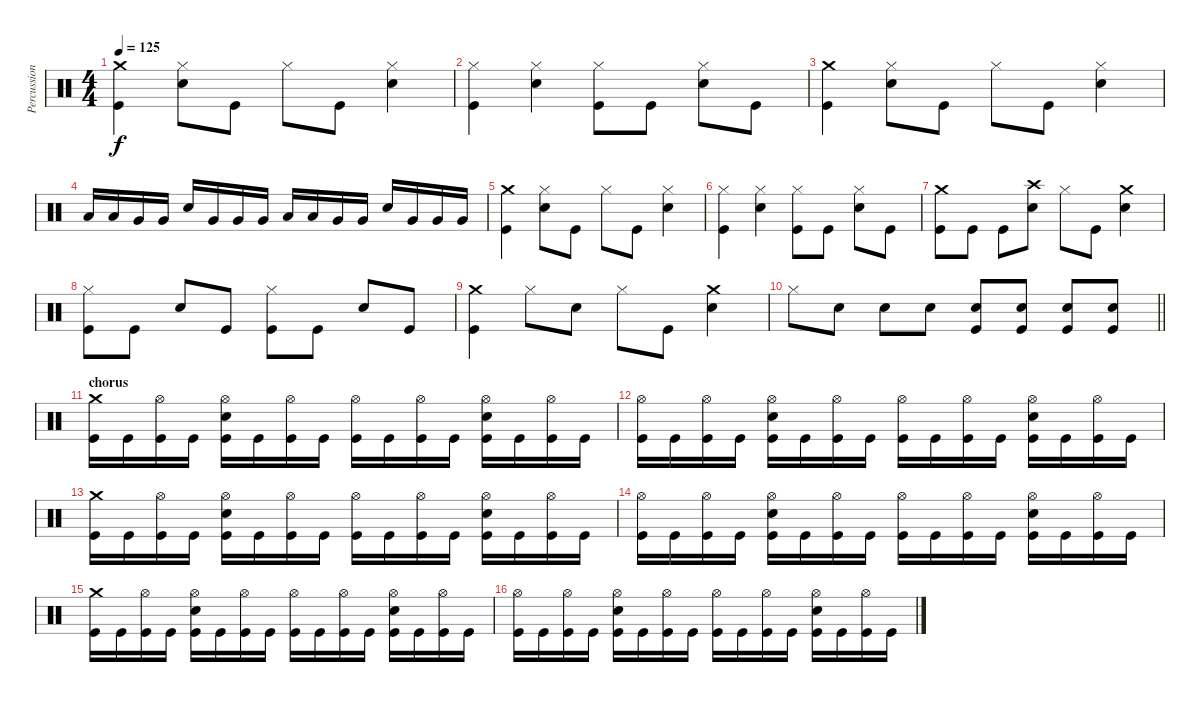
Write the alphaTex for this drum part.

\track ("Percussion" "Percussion") {instrument percussion}
\staff {score}
\articulation defaults
\ts (4 4)
\tempo 125
\clef neutral
\ks c
("Crash medium (hit)" "Kick (hit)").4{dy f} ("Hi-Hat (closed)" "Electric Snare (hit)").8 "Kick (hit)".8 "Hi-Hat (closed)".8 "Kick (hit)".8 ("Hi-Hat (closed)" "Electric Snare (hit)").4 |
("Hi-Hat (closed)" "Kick (hit)").4 ("Hi-Hat (closed)" "Electric Snare (hit)").4 ("Hi-Hat (closed)" "Kick (hit)").8 "Kick (hit)".8 ("Hi-Hat (closed)" "Electric Snare (hit)").8 "Kick (hit)".8 |
("Crash medium (hit)" "Kick (hit)").4 ("Hi-Hat (closed)" "Electric Snare (hit)").8 "Kick (hit)".8 "Hi-Hat (closed)".8 "Kick (hit)".8 ("Hi-Hat (closed)" "Electric Snare (hit)").4 |
"Low Tom (hit)".16 "Low Tom (hit)".16 "Very Low Tom (hit)".16 "Very Low Tom (hit)".16 "Electric Snare (hit)".16 "Very Low Tom (hit)".16 "Very Low Tom (hit)".16 "Very Low Tom (hit)".16 "Low Tom (hit)".16 "Low Tom (hit)".16 "Very Low Tom (hit)".16 "Very Low Tom (hit)".16 "Electric Snare (hit)".16 "Very Low Tom (hit)".16 "Very Low Tom (hit)".16 "Very Low Tom (hit)".16 |
("Crash medium (hit)" "Kick (hit)").4 ("Hi-Hat (closed)" "Electric Snare (hit)").8 "Kick (hit)".8 "Hi-Hat (closed)".8 "Kick (hit)".8 ("Hi-Hat (closed)" "Electric Snare (hit)").4 |
("Hi-Hat (closed)" "Kick (hit)").4 ("Hi-Hat (closed)" "Electric Snare (hit)").4 ("Hi-Hat (closed)" "Kick (hit)").8 "Kick (hit)".8 ("Hi-Hat (closed)" "Electric Snare (hit)").8 "Kick (hit)".8 |
("Crash medium (hit)" "Kick (hit)").8 "Kick (hit)".8 "Kick (hit)".8 ("Crash high (hit)" "Electric Snare (hit)").8 "Hi-Hat (closed)".8 "Kick (hit)".8 ("Crash medium (hit)" "Electric Snare (hit)").4 |
("Hi-Hat (closed)" "Kick (hit)").8 "Kick (hit)".8 "Electric Snare (hit)".8 "Kick (hit)".8 ("Hi-Hat (closed)" "Kick (hit)").8 "Kick (hit)".8 "Electric Snare (hit)".8 "Kick (hit)".8 |
("Crash medium (hit)" "Kick (hit)").4 "Hi-Hat (closed)".8 "Electric Snare (hit)".8 "Hi-Hat (closed)".8 "Kick (hit)".8 ("Crash medium (hit)" "Electric Snare (hit)").4 |
\barLineRight lightlight "Hi-Hat (closed)".8 "Electric Snare (hit)".8 "Electric Snare (hit)".8 "Electric Snare (hit)".8
("Electric Snare (hit)" "Kick (hit)").8 ("Electric Snare (hit)" "Kick (hit)").8 ("Electric Snare (hit)" "Kick (hit)").8 ("Electric Snare (hit)" "Kick (hit)").8 |
\section ("" "chorus")
("Crash medium (hit)" "Kick (hit)").16 "Kick (hit)".16 ("Hi-Hat (open)" "Kick (hit)").16 "Kick (hit)".16 ("Hi-Hat (open)" "Electric Snare (hit)" "Kick (hit)").16 "Kick (hit)".16 ("Hi-Hat (open)" "Kick (hit)").16 "Kick (hit)".16 ("Hi-Hat (open)" "Kick (hit)").16 "Kick (hit)".16 ("Hi-Hat (open)" "Kick (hit)").16 "Kick (hit)".16 ("Hi-Hat (open)" "Electric Snare (hit)" "Kick (hit)").16 "Kick (hit)".16 ("Hi-Hat (open)" "Kick (hit)").16 "Kick (hit)".16 |
("Hi-Hat (open)" "Kick (hit)").16 "Kick (hit)".16 ("Hi-Hat (open)" "Kick (hit)").16 "Kick (hit)".16 ("Hi-Hat (open)" "Electric Snare (hit)" "Kick (hit)").16 "Kick (hit)".16 ("Hi-Hat (open)" "Kick (hit)").16 "Kick (hit)".16 ("Hi-Hat (open)" "Kick (hit)").16 "Kick (hit)".16 ("Hi-Hat (open)" "Kick (hit)").16 "Kick (hit)".16 ("Hi-Hat (open)" "Electric Snare (hit)" "Kick (hit)").16 "Kick (hit)".16 ("Hi-Hat (open)" "Kick (hit)").16 "Kick (hit)".16 |
("Crash medium (hit)" "Kick (hit)").16 "Kick (hit)".16 ("Hi-Hat (open)" "Kick (hit)").16 "Kick (hit)".16 ("Hi-Hat (open)" "Electric Snare (hit)" "Kick (hit)").16 "Kick (hit)".16 ("Hi-Hat (open)" "Kick (hit)").16 "Kick (hit)".16 ("Hi-Hat (open)" "Kick (hit)").16 "Kick (hit)".16 ("Hi-Hat (open)" "Kick (hit)").16 "Kick (hit)".16 ("Hi-Hat (open)" "Electric Snare (hit)" "Kick (hit)").16 "Kick (hit)".16 ("Hi-Hat (open)" "Kick (hit)").16 "Kick (hit)".16 |
("Hi-Hat (open)" "Kick (hit)").16 "Kick (hit)".16 ("Hi-Hat (open)" "Kick (hit)").16 "Kick (hit)".16 ("Hi-Hat (open)" "Electric Snare (hit)" "Kick (hit)").16 "Kick (hit)".16 ("Hi-Hat (open)" "Kick (hit)").16 "Kick (hit)".16 ("Hi-Hat (open)" "Kick (hit)").16 "Kick (hit)".16 ("Hi-Hat (open)" "Kick (hit)").16 "Kick (hit)".16 ("Hi-Hat (open)" "Electric Snare (hit)" "Kick (hit)").16 "Kick (hit)".16 ("Hi-Hat (open)" "Kick (hit)").16 "Kick (hit)".16 |
("Crash medium (hit)" "Kick (hit)").16 "Kick (hit)".16 ("Hi-Hat (open)" "Kick (hit)").16 "Kick (hit)".16 ("Hi-Hat (open)" "Electric Snare (hit)" "Kick (hit)").16 "Kick (hit)".16 ("Hi-Hat (open)" "Kick (hit)").16 "Kick (hit)".16 ("Hi-Hat (open)" "Kick (hit)").16 "Kick (hit)".16 ("Hi-Hat (open)" "Kick (hit)").16 "Kick (hit)".16 ("Hi-Hat (open)" "Electric Snare (hit)" "Kick (hit)").16 "Kick (hit)".16 ("Hi-Hat (open)" "Kick (hit)").16 "Kick (hit)".16 |
("Hi-Hat (open)" "Kick (hit)").16 "Kick (hit)".16 ("Hi-Hat (open)" "Kick (hit)").16 "Kick (hit)".16 ("Hi-Hat (open)" "Electric Snare (hit)" "Kick (hit)").16 "Kick (hit)".16 ("Hi-Hat (open)" "Kick (hit)").16 "Kick (hit)".16 ("Hi-Hat (open)" "Kick (hit)").16 "Kick (hit)".16 ("Hi-Hat (open)" "Kick (hit)").16 "Kick (hit)".16 ("Hi-Hat (open)" "Electric Snare (hit)" "Kick (hit)").16 "Kick (hit)".16 ("Hi-Hat (open)" "Kick (hit)").16 "Kick (hit)".16
